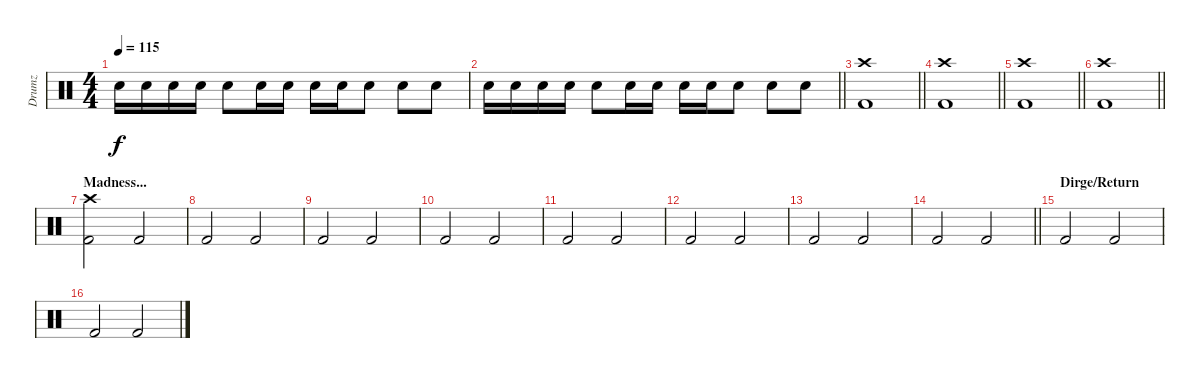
\track ("Drumz" "Drumz") {instrument percussion}
\staff {score}
\articulation defaults
\ts (4 4)
\tempo 115
\clef neutral
\ks c "Snare (hit) 2".16{dy f} "Snare (hit) 2".16 "Snare (hit) 2".16 "Snare (hit) 2".16 "Snare (hit) 2".8 "Snare (hit) 2".16 "Snare (hit) 2".16 "Snare (hit) 2".16 "Snare (hit) 2".16 "Snare (hit) 2".8 "Snare (hit) 2".8 "Snare (hit) 2".8
|
\barLineRight lightlight "Snare (hit) 2".16 "Snare (hit) 2".16 "Snare (hit) 2".16 "Snare (hit) 2".16 "Snare (hit) 2".8 "Snare (hit) 2".16 "Snare (hit) 2".16 "Snare (hit) 2".16 "Snare (hit) 2".16 "Snare (hit) 2".8 "Snare (hit) 2".8 "Snare (hit) 2".8
|
\barLineRight lightlight
("Crash high (hit)" "Kick (hit) 2").1 |
\barLineRight lightlight
("Crash high (hit)" "Kick (hit) 2").1 |
\barLineRight lightlight
("Crash high (hit)" "Kick (hit) 2").1 |
\barLineRight lightlight
("Crash high (hit)" "Kick (hit) 2").1 |
\section ("" "Madness...")
("Crash high (hit)" "Kick (hit) 2").2 "Kick (hit) 2".2 |
"Kick (hit) 2".2 "Kick (hit) 2".2 |
"Kick (hit) 2".2 "Kick (hit) 2".2 |
"Kick (hit) 2".2 "Kick (hit) 2".2 |
"Kick (hit) 2".2 "Kick (hit) 2".2 |
"Kick (hit) 2".2 "Kick (hit) 2".2 |
"Kick (hit) 2".2 "Kick (hit) 2".2 |
\barLineRight lightlight "Kick (hit) 2".2 "Kick (hit) 2".2
|
\section ("" "Dirge/Return")
"Kick (hit) 2".2 "Kick (hit) 2".2 |
"Kick (hit) 2".2 "Kick (hit) 2".2
